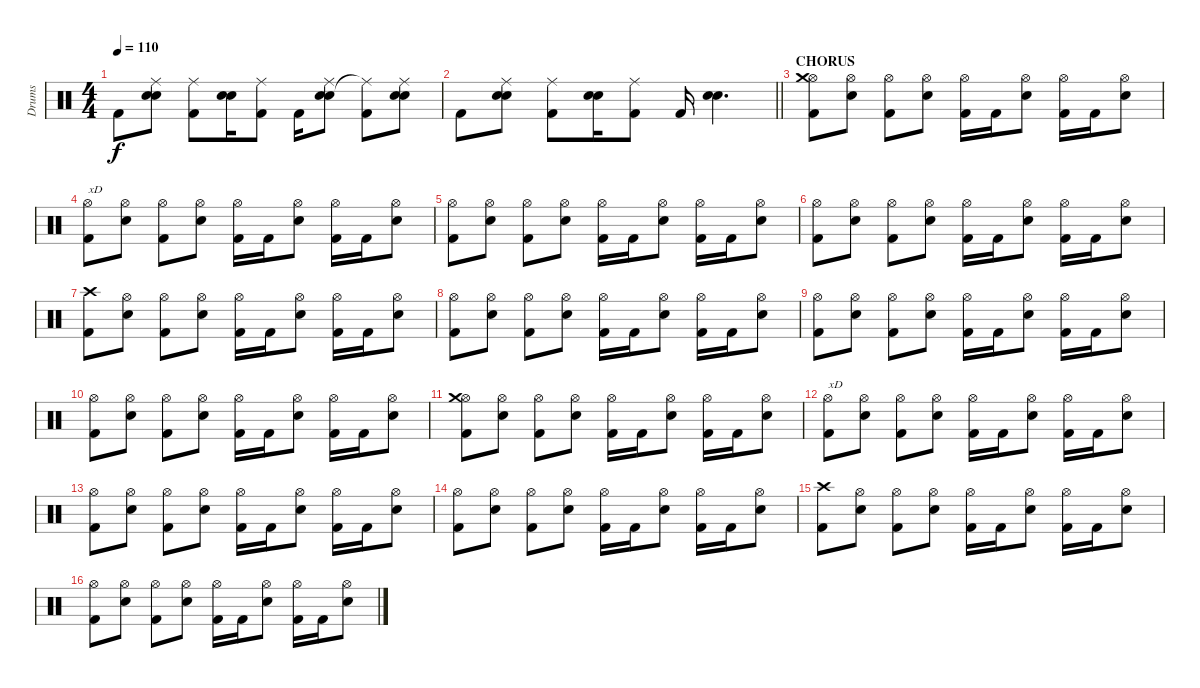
\track ("Drums" "Drums") {instrument percussion}
\staff {score}
\articulation defaults
\ts (4 4)
\tempo 110
\clef neutral
\ks c "Kick (hit) 2".8{dy f}
("Snare (hit) 2" "Snare (hit) 2" "Ride (middle)").8 ("Kick (hit) 2" "Ride (middle)").8 ("Snare (hit) 2" "Snare (hit) 2").16 ("Kick (hit) 2" "Ride (middle)").8 "Kick (hit) 2".16 ("Snare (hit) 2" "Snare (hit) 2" "Ride (middle)").8 ("Kick (hit) 2" "Ride (middle)"{t}).8 ("Snare (hit) 2" "Snare (hit) 2" "Ride (middle)").8 |
\barLineRight lightlight "Kick (hit) 2".8
("Snare (hit) 2" "Snare (hit) 2" "Ride (middle)").8 ("Kick (hit) 2" "Ride (middle)").8 ("Snare (hit) 2" "Snare (hit) 2").16 ("Kick (hit) 2" "Ride (middle)").8 "Kick (hit) 2".16 ("Snare (hit) 2" "Snare (hit) 2").4{d} |
\section ("" "CHORUS")
("Hi-Hat (open)" "Kick (hit) 2" "Crash medium (hit)").8{volume 16} ("Hi-Hat (open)" "Electric Snare (hit)").8 ("Hi-Hat (open)" "Kick (hit) 2").8 ("Hi-Hat (open)" "Electric Snare (hit)").8 ("Hi-Hat (open)" "Kick (hit) 2").16 "Kick (hit) 2".16 ("Hi-Hat (open)" "Electric Snare (hit)").8 ("Hi-Hat (open)" "Kick (hit) 2").16 "Kick (hit) 2".16 ("Hi-Hat (open)" "Electric Snare (hit)").8 |
("Hi-Hat (open)" "Kick (hit) 2").8{txt "xD"} ("Hi-Hat (open)" "Electric Snare (hit)").8 ("Hi-Hat (open)" "Kick (hit) 2").8 ("Hi-Hat (open)" "Electric Snare (hit)").8 ("Hi-Hat (open)" "Kick (hit) 2").16 "Kick (hit) 2".16 ("Hi-Hat (open)" "Electric Snare (hit)").8 ("Hi-Hat (open)" "Kick (hit) 2").16 "Kick (hit) 2".16 ("Hi-Hat (open)" "Electric Snare (hit)").8 |
("Hi-Hat (open)" "Kick (hit) 2").8 ("Hi-Hat (open)" "Electric Snare (hit)").8 ("Hi-Hat (open)" "Kick (hit) 2").8 ("Hi-Hat (open)" "Electric Snare (hit)").8 ("Hi-Hat (open)" "Kick (hit) 2").16 "Kick (hit) 2".16 ("Hi-Hat (open)" "Electric Snare (hit)").8 ("Hi-Hat (open)" "Kick (hit) 2").16 "Kick (hit) 2".16 ("Hi-Hat (open)" "Electric Snare (hit)").8 |
("Hi-Hat (open)" "Kick (hit) 2").8 ("Hi-Hat (open)" "Electric Snare (hit)").8 ("Hi-Hat (open)" "Kick (hit) 2").8 ("Hi-Hat (open)" "Electric Snare (hit)").8 ("Hi-Hat (open)" "Kick (hit) 2").16 "Kick (hit) 2".16 ("Hi-Hat (open)" "Electric Snare (hit)").8 ("Hi-Hat (open)" "Kick (hit) 2").16 "Kick (hit) 2".16 ("Hi-Hat (open)" "Electric Snare (hit)").8 |
("Crash high (hit)" "Kick (hit) 2").8 ("Hi-Hat (open)" "Electric Snare (hit)").8 ("Hi-Hat (open)" "Kick (hit) 2").8 ("Hi-Hat (open)" "Electric Snare (hit)").8 ("Hi-Hat (open)" "Kick (hit) 2").16 "Kick (hit) 2".16 ("Hi-Hat (open)" "Electric Snare (hit)").8 ("Hi-Hat (open)" "Kick (hit) 2").16 "Kick (hit) 2".16 ("Hi-Hat (open)" "Electric Snare (hit)").8 |
("Hi-Hat (open)" "Kick (hit) 2").8 ("Hi-Hat (open)" "Electric Snare (hit)").8 ("Hi-Hat (open)" "Kick (hit) 2").8 ("Hi-Hat (open)" "Electric Snare (hit)").8 ("Hi-Hat (open)" "Kick (hit) 2").16 "Kick (hit) 2".16 ("Hi-Hat (open)" "Electric Snare (hit)").8 ("Hi-Hat (open)" "Kick (hit) 2").16 "Kick (hit) 2".16 ("Hi-Hat (open)" "Electric Snare (hit)").8 |
("Hi-Hat (open)" "Kick (hit) 2").8 ("Hi-Hat (open)" "Electric Snare (hit)").8 ("Hi-Hat (open)" "Kick (hit) 2").8 ("Hi-Hat (open)" "Electric Snare (hit)").8 ("Hi-Hat (open)" "Kick (hit) 2").16 "Kick (hit) 2".16 ("Hi-Hat (open)" "Electric Snare (hit)").8 ("Hi-Hat (open)" "Kick (hit) 2").16 "Kick (hit) 2".16 ("Hi-Hat (open)" "Electric Snare (hit)").8 |
("Hi-Hat (open)" "Kick (hit) 2").8 ("Hi-Hat (open)" "Electric Snare (hit)").8 ("Hi-Hat (open)" "Kick (hit) 2").8 ("Hi-Hat (open)" "Electric Snare (hit)").8 ("Hi-Hat (open)" "Kick (hit) 2").16 "Kick (hit) 2".16 ("Hi-Hat (open)" "Electric Snare (hit)").8 ("Hi-Hat (open)" "Kick (hit) 2").16 "Kick (hit) 2".16 ("Hi-Hat (open)" "Electric Snare (hit)").8 |
("Hi-Hat (open)" "Kick (hit) 2" "Crash medium (hit)").8{volume 16} ("Hi-Hat (open)" "Electric Snare (hit)").8 ("Hi-Hat (open)" "Kick (hit) 2").8 ("Hi-Hat (open)" "Electric Snare (hit)").8 ("Hi-Hat (open)" "Kick (hit) 2").16 "Kick (hit) 2".16 ("Hi-Hat (open)" "Electric Snare (hit)").8 ("Hi-Hat (open)" "Kick (hit) 2").16 "Kick (hit) 2".16 ("Hi-Hat (open)" "Electric Snare (hit)").8 |
("Hi-Hat (open)" "Kick (hit) 2").8{txt "xD"} ("Hi-Hat (open)" "Electric Snare (hit)").8 ("Hi-Hat (open)" "Kick (hit) 2").8 ("Hi-Hat (open)" "Electric Snare (hit)").8 ("Hi-Hat (open)" "Kick (hit) 2").16 "Kick (hit) 2".16 ("Hi-Hat (open)" "Electric Snare (hit)").8 ("Hi-Hat (open)" "Kick (hit) 2").16 "Kick (hit) 2".16 ("Hi-Hat (open)" "Electric Snare (hit)").8 |
("Hi-Hat (open)" "Kick (hit) 2").8 ("Hi-Hat (open)" "Electric Snare (hit)").8 ("Hi-Hat (open)" "Kick (hit) 2").8 ("Hi-Hat (open)" "Electric Snare (hit)").8 ("Hi-Hat (open)" "Kick (hit) 2").16 "Kick (hit) 2".16 ("Hi-Hat (open)" "Electric Snare (hit)").8 ("Hi-Hat (open)" "Kick (hit) 2").16 "Kick (hit) 2".16 ("Hi-Hat (open)" "Electric Snare (hit)").8 |
("Hi-Hat (open)" "Kick (hit) 2").8 ("Hi-Hat (open)" "Electric Snare (hit)").8 ("Hi-Hat (open)" "Kick (hit) 2").8 ("Hi-Hat (open)" "Electric Snare (hit)").8 ("Hi-Hat (open)" "Kick (hit) 2").16 "Kick (hit) 2".16 ("Hi-Hat (open)" "Electric Snare (hit)").8 ("Hi-Hat (open)" "Kick (hit) 2").16 "Kick (hit) 2".16 ("Hi-Hat (open)" "Electric Snare (hit)").8 |
("Crash high (hit)" "Kick (hit) 2").8 ("Hi-Hat (open)" "Electric Snare (hit)").8 ("Hi-Hat (open)" "Kick (hit) 2").8 ("Hi-Hat (open)" "Electric Snare (hit)").8 ("Hi-Hat (open)" "Kick (hit) 2").16 "Kick (hit) 2".16 ("Hi-Hat (open)" "Electric Snare (hit)").8 ("Hi-Hat (open)" "Kick (hit) 2").16 "Kick (hit) 2".16 ("Hi-Hat (open)" "Electric Snare (hit)").8 |
("Hi-Hat (open)" "Kick (hit) 2").8 ("Hi-Hat (open)" "Electric Snare (hit)").8 ("Hi-Hat (open)" "Kick (hit) 2").8 ("Hi-Hat (open)" "Electric Snare (hit)").8 ("Hi-Hat (open)" "Kick (hit) 2").16 "Kick (hit) 2".16 ("Hi-Hat (open)" "Electric Snare (hit)").8 ("Hi-Hat (open)" "Kick (hit) 2").16 "Kick (hit) 2".16 ("Hi-Hat (open)" "Electric Snare (hit)").8
